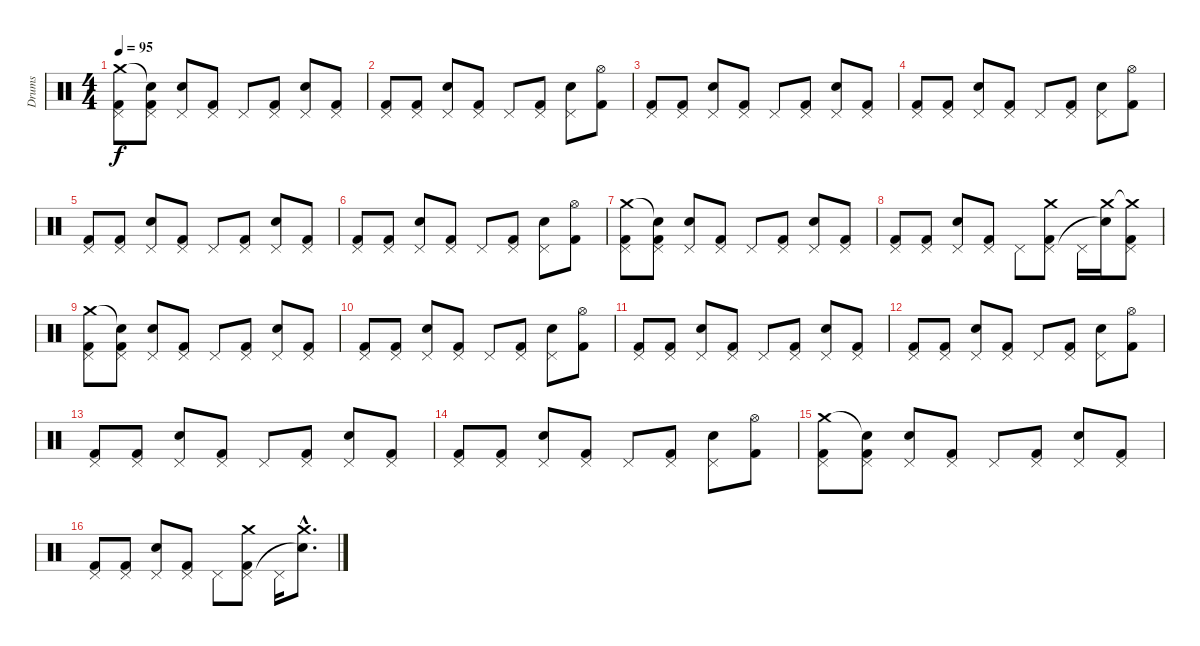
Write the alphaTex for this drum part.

\track ("Drums" "Drums") {instrument percussion}
\staff {score}
\articulation defaults
\ts (4 4)
\tempo 95
\clef neutral
\ks c
("Crash medium (hit)" "Pedal Hi-Hat (hit)" "Kick (hit) 2").8{dy f} ("Snare (hit)"{t} "Pedal Hi-Hat (hit)" "Kick (hit) 2").8 ("Pedal Hi-Hat (hit)" "Snare (hit) 2").8 ("Pedal Hi-Hat (hit)" "Kick (hit) 2").8 "Pedal Hi-Hat (hit)".8 ("Pedal Hi-Hat (hit)" "Kick (hit) 2").8 ("Pedal Hi-Hat (hit)" "Snare (hit) 2").8 ("Pedal Hi-Hat (hit)" "Kick (hit) 2").8 |
("Pedal Hi-Hat (hit)" "Kick (hit) 2").8 ("Pedal Hi-Hat (hit)" "Kick (hit) 2").8 ("Pedal Hi-Hat (hit)" "Snare (hit) 2").8 ("Pedal Hi-Hat (hit)" "Kick (hit) 2").8 "Pedal Hi-Hat (hit)".8 ("Pedal Hi-Hat (hit)" "Kick (hit) 2").8 ("Pedal Hi-Hat (hit)" "Snare (hit) 2").8 ("Hi-Hat (open)" "Kick (hit) 2").8 |
("Pedal Hi-Hat (hit)" "Kick (hit) 2").8 ("Pedal Hi-Hat (hit)" "Kick (hit) 2").8 ("Pedal Hi-Hat (hit)" "Snare (hit) 2").8 ("Pedal Hi-Hat (hit)" "Kick (hit) 2").8 "Pedal Hi-Hat (hit)".8 ("Pedal Hi-Hat (hit)" "Kick (hit) 2").8 ("Pedal Hi-Hat (hit)" "Snare (hit) 2").8 ("Pedal Hi-Hat (hit)" "Kick (hit) 2").8 |
("Pedal Hi-Hat (hit)" "Kick (hit) 2").8 ("Pedal Hi-Hat (hit)" "Kick (hit) 2").8 ("Pedal Hi-Hat (hit)" "Snare (hit) 2").8 ("Pedal Hi-Hat (hit)" "Kick (hit) 2").8 "Pedal Hi-Hat (hit)".8 ("Pedal Hi-Hat (hit)" "Kick (hit) 2").8 ("Pedal Hi-Hat (hit)" "Snare (hit) 2").8 ("Hi-Hat (open)" "Kick (hit) 2").8 |
("Pedal Hi-Hat (hit)" "Kick (hit) 2").8 ("Pedal Hi-Hat (hit)" "Kick (hit) 2").8 ("Pedal Hi-Hat (hit)" "Snare (hit) 2").8 ("Pedal Hi-Hat (hit)" "Kick (hit) 2").8 "Pedal Hi-Hat (hit)".8 ("Pedal Hi-Hat (hit)" "Kick (hit) 2").8 ("Pedal Hi-Hat (hit)" "Snare (hit) 2").8 ("Pedal Hi-Hat (hit)" "Kick (hit) 2").8 |
("Pedal Hi-Hat (hit)" "Kick (hit) 2").8 ("Pedal Hi-Hat (hit)" "Kick (hit) 2").8 ("Pedal Hi-Hat (hit)" "Snare (hit) 2").8 ("Pedal Hi-Hat (hit)" "Kick (hit) 2").8 "Pedal Hi-Hat (hit)".8 ("Pedal Hi-Hat (hit)" "Kick (hit) 2").8 ("Pedal Hi-Hat (hit)" "Snare (hit) 2").8 ("Hi-Hat (open)" "Kick (hit) 2").8 |
("Crash medium (hit)" "Pedal Hi-Hat (hit)" "Kick (hit) 2").8 ("Snare (hit)"{t} "Pedal Hi-Hat (hit)" "Kick (hit) 2").8 ("Pedal Hi-Hat (hit)" "Snare (hit) 2").8 ("Pedal Hi-Hat (hit)" "Kick (hit) 2").8 "Pedal Hi-Hat (hit)".8 ("Pedal Hi-Hat (hit)" "Kick (hit) 2").8 ("Pedal Hi-Hat (hit)" "Snare (hit) 2").8 ("Pedal Hi-Hat (hit)" "Kick (hit) 2").8 |
("Pedal Hi-Hat (hit)" "Kick (hit) 2").8 ("Pedal Hi-Hat (hit)" "Kick (hit) 2").8 ("Pedal Hi-Hat (hit)" "Snare (hit) 2").8 ("Pedal Hi-Hat (hit)" "Kick (hit) 2").8 "Pedal Hi-Hat (hit)".8 ("Crash medium (hit)" "Pedal Hi-Hat (hit)" "Kick (hit) 2").8 "Pedal Hi-Hat (hit)".16 ("Crash medium (hit)" "Snare (hit)"{t}).16 ("Crash medium (hit)"{t} "Pedal Hi-Hat (hit)" "Kick (hit) 2").8 |
("Crash medium (hit)" "Pedal Hi-Hat (hit)" "Kick (hit) 2").8 ("Snare (hit)"{t} "Pedal Hi-Hat (hit)" "Kick (hit) 2").8 ("Pedal Hi-Hat (hit)" "Snare (hit) 2").8 ("Pedal Hi-Hat (hit)" "Kick (hit) 2").8 "Pedal Hi-Hat (hit)".8 ("Pedal Hi-Hat (hit)" "Kick (hit) 2").8 ("Pedal Hi-Hat (hit)" "Snare (hit) 2").8 ("Pedal Hi-Hat (hit)" "Kick (hit) 2").8 |
("Pedal Hi-Hat (hit)" "Kick (hit) 2").8 ("Pedal Hi-Hat (hit)" "Kick (hit) 2").8 ("Pedal Hi-Hat (hit)" "Snare (hit) 2").8 ("Pedal Hi-Hat (hit)" "Kick (hit) 2").8 "Pedal Hi-Hat (hit)".8 ("Pedal Hi-Hat (hit)" "Kick (hit) 2").8 ("Pedal Hi-Hat (hit)" "Snare (hit) 2").8 ("Hi-Hat (open)" "Kick (hit) 2").8 |
("Pedal Hi-Hat (hit)" "Kick (hit) 2").8 ("Pedal Hi-Hat (hit)" "Kick (hit) 2").8 ("Pedal Hi-Hat (hit)" "Snare (hit) 2").8 ("Pedal Hi-Hat (hit)" "Kick (hit) 2").8 "Pedal Hi-Hat (hit)".8 ("Pedal Hi-Hat (hit)" "Kick (hit) 2").8 ("Pedal Hi-Hat (hit)" "Snare (hit) 2").8 ("Pedal Hi-Hat (hit)" "Kick (hit) 2").8 |
("Pedal Hi-Hat (hit)" "Kick (hit) 2").8 ("Pedal Hi-Hat (hit)" "Kick (hit) 2").8 ("Pedal Hi-Hat (hit)" "Snare (hit) 2").8 ("Pedal Hi-Hat (hit)" "Kick (hit) 2").8 "Pedal Hi-Hat (hit)".8 ("Pedal Hi-Hat (hit)" "Kick (hit) 2").8 ("Pedal Hi-Hat (hit)" "Snare (hit) 2").8 ("Hi-Hat (open)" "Kick (hit) 2").8 |
("Pedal Hi-Hat (hit)" "Kick (hit) 2").8 ("Pedal Hi-Hat (hit)" "Kick (hit) 2").8 ("Pedal Hi-Hat (hit)" "Snare (hit) 2").8 ("Pedal Hi-Hat (hit)" "Kick (hit) 2").8 "Pedal Hi-Hat (hit)".8 ("Pedal Hi-Hat (hit)" "Kick (hit) 2").8 ("Pedal Hi-Hat (hit)" "Snare (hit) 2").8 ("Pedal Hi-Hat (hit)" "Kick (hit) 2").8 |
("Pedal Hi-Hat (hit)" "Kick (hit) 2").8 ("Pedal Hi-Hat (hit)" "Kick (hit) 2").8 ("Pedal Hi-Hat (hit)" "Snare (hit) 2").8 ("Pedal Hi-Hat (hit)" "Kick (hit) 2").8 "Pedal Hi-Hat (hit)".8 ("Pedal Hi-Hat (hit)" "Kick (hit) 2").8 ("Pedal Hi-Hat (hit)" "Snare (hit) 2").8 ("Hi-Hat (open)" "Kick (hit) 2").8 |
("Crash medium (hit)" "Pedal Hi-Hat (hit)" "Kick (hit) 2").8 ("Snare (hit)"{t} "Pedal Hi-Hat (hit)" "Kick (hit) 2").8 ("Pedal Hi-Hat (hit)" "Snare (hit) 2").8 ("Pedal Hi-Hat (hit)" "Kick (hit) 2").8 "Pedal Hi-Hat (hit)".8 ("Pedal Hi-Hat (hit)" "Kick (hit) 2").8 ("Pedal Hi-Hat (hit)" "Snare (hit) 2").8 ("Pedal Hi-Hat (hit)" "Kick (hit) 2").8 |
("Pedal Hi-Hat (hit)" "Kick (hit) 2").8 ("Pedal Hi-Hat (hit)" "Kick (hit) 2").8 ("Pedal Hi-Hat (hit)" "Snare (hit) 2").8 ("Pedal Hi-Hat (hit)" "Kick (hit) 2").8 "Pedal Hi-Hat (hit)".8 ("Crash medium (hit)" "Pedal Hi-Hat (hit)" "Kick (hit) 2").8 "Pedal Hi-Hat (hit)".16 ("Crash medium (hit)"{hac} "Snare (hit)"{hac t}).8{d}
